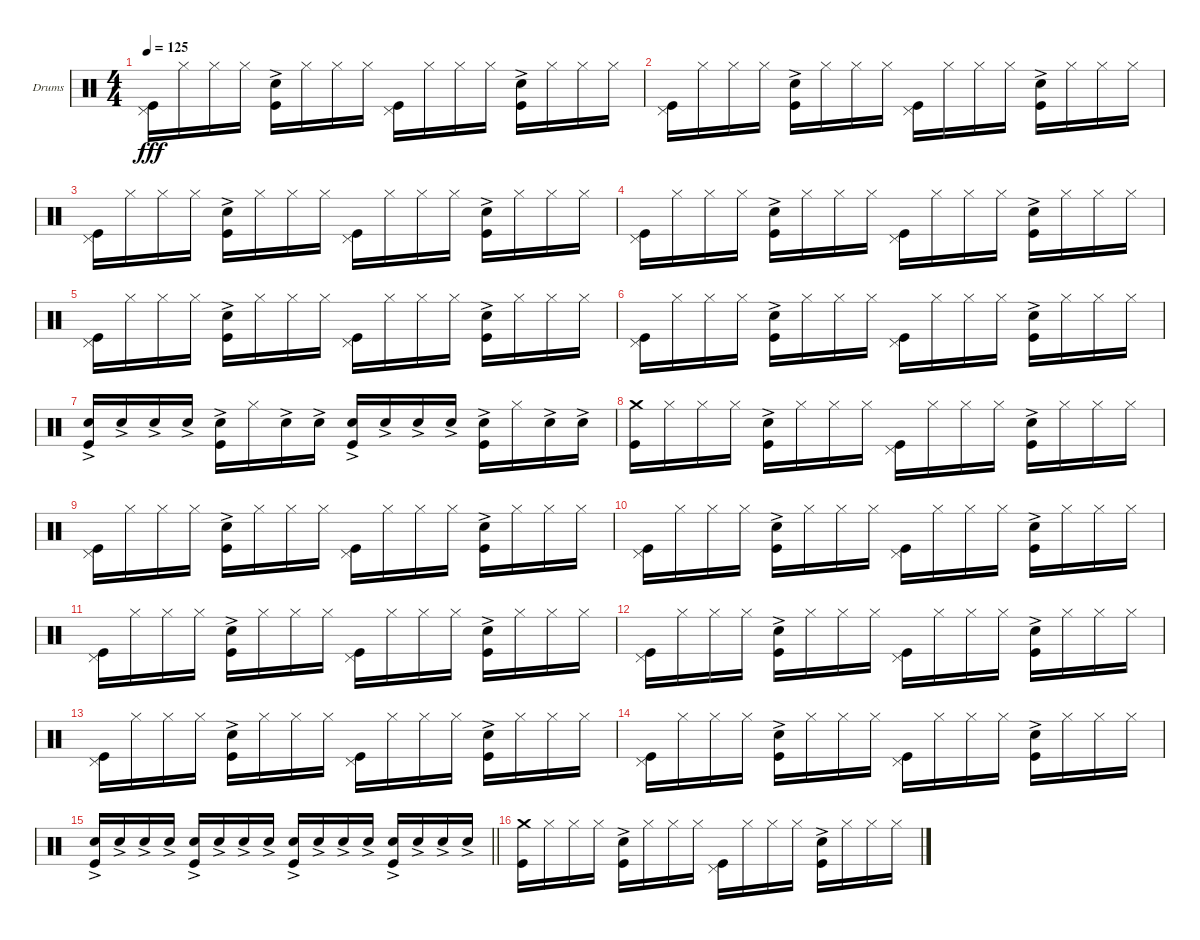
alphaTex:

\bracketExtendMode groupsimilarinstruments
\firstSystemTrackNameOrientation horizontal
\otherSystemsTrackNameOrientation horizontal
\track ("Ударники Григорий Гурьянов" "Drums") {instrument percussion}
\staff {score}
\articulation defaults
\ts (4 4)
\tempo 125
\clef neutral
\ks c
("Pedal Hi-Hat (hit)" "Kick (hit)").16{dy fff} "Hi-Hat (closed)".16 "Hi-Hat (closed)".16 "Hi-Hat (closed)".16 ("Snare (hit) 2"{ac} "Kick (hit)").16 "Hi-Hat (closed)".16 "Hi-Hat (closed)".16 "Hi-Hat (closed)".16 ("Pedal Hi-Hat (hit)" "Kick (hit)").16 "Hi-Hat (closed)".16 "Hi-Hat (closed)".16 "Hi-Hat (closed)".16 ("Snare (hit) 2"{ac} "Kick (hit)").16 "Hi-Hat (closed)".16 "Hi-Hat (closed)".16 "Hi-Hat (closed)".16 |
("Pedal Hi-Hat (hit)" "Kick (hit)").16 "Hi-Hat (closed)".16 "Hi-Hat (closed)".16 "Hi-Hat (closed)".16 ("Snare (hit) 2"{ac} "Kick (hit)").16 "Hi-Hat (closed)".16 "Hi-Hat (closed)".16 "Hi-Hat (closed)".16 ("Pedal Hi-Hat (hit)" "Kick (hit)").16 "Hi-Hat (closed)".16 "Hi-Hat (closed)".16 "Hi-Hat (closed)".16 ("Snare (hit) 2"{ac} "Kick (hit)").16 "Hi-Hat (closed)".16 "Hi-Hat (closed)".16 "Hi-Hat (closed)".16 |
("Pedal Hi-Hat (hit)" "Kick (hit)").16 "Hi-Hat (closed)".16 "Hi-Hat (closed)".16 "Hi-Hat (closed)".16 ("Snare (hit) 2"{ac} "Kick (hit)").16 "Hi-Hat (closed)".16 "Hi-Hat (closed)".16 "Hi-Hat (closed)".16 ("Pedal Hi-Hat (hit)" "Kick (hit)").16 "Hi-Hat (closed)".16 "Hi-Hat (closed)".16 "Hi-Hat (closed)".16 ("Snare (hit) 2"{ac} "Kick (hit)").16 "Hi-Hat (closed)".16 "Hi-Hat (closed)".16 "Hi-Hat (closed)".16 |
("Pedal Hi-Hat (hit)" "Kick (hit)").16 "Hi-Hat (closed)".16 "Hi-Hat (closed)".16 "Hi-Hat (closed)".16 ("Snare (hit) 2"{ac} "Kick (hit)").16 "Hi-Hat (closed)".16 "Hi-Hat (closed)".16 "Hi-Hat (closed)".16 ("Pedal Hi-Hat (hit)" "Kick (hit)").16 "Hi-Hat (closed)".16 "Hi-Hat (closed)".16 "Hi-Hat (closed)".16 ("Snare (hit) 2"{ac} "Kick (hit)").16 "Hi-Hat (closed)".16 "Hi-Hat (closed)".16 "Hi-Hat (closed)".16 |
("Pedal Hi-Hat (hit)" "Kick (hit)").16 "Hi-Hat (closed)".16 "Hi-Hat (closed)".16 "Hi-Hat (closed)".16 ("Snare (hit) 2"{ac} "Kick (hit)").16 "Hi-Hat (closed)".16 "Hi-Hat (closed)".16 "Hi-Hat (closed)".16 ("Pedal Hi-Hat (hit)" "Kick (hit)").16 "Hi-Hat (closed)".16 "Hi-Hat (closed)".16 "Hi-Hat (closed)".16 ("Snare (hit) 2"{ac} "Kick (hit)").16 "Hi-Hat (closed)".16 "Hi-Hat (closed)".16 "Hi-Hat (closed)".16 |
("Pedal Hi-Hat (hit)" "Kick (hit)").16 "Hi-Hat (closed)".16 "Hi-Hat (closed)".16 "Hi-Hat (closed)".16 ("Snare (hit) 2"{ac} "Kick (hit)").16 "Hi-Hat (closed)".16 "Hi-Hat (closed)".16 "Hi-Hat (closed)".16 ("Pedal Hi-Hat (hit)" "Kick (hit)").16 "Hi-Hat (closed)".16 "Hi-Hat (closed)".16 "Hi-Hat (closed)".16 ("Snare (hit) 2"{ac} "Kick (hit)").16 "Hi-Hat (closed)".16 "Hi-Hat (closed)".16 "Hi-Hat (closed)".16 |
("Snare (hit) 2"{ac} "Kick (hit)").16 "Snare (hit) 2"{ac}.16 "Snare (hit) 2"{ac}.16 "Snare (hit) 2"{ac}.16 ("Snare (hit) 2"{ac} "Kick (hit)").16 "Hi-Hat (closed)".16 "Snare (hit) 2"{ac}.16 "Snare (hit) 2"{ac}.16 ("Snare (hit) 2"{ac} "Kick (hit)").16 "Snare (hit) 2"{ac}.16 "Snare (hit) 2"{ac}.16 "Snare (hit) 2"{ac}.16 ("Snare (hit) 2"{ac} "Kick (hit)").16 "Hi-Hat (closed)".16 "Snare (hit) 2"{ac}.16 "Snare (hit) 2"{ac}.16 |
("Crash medium (hit)" "Kick (hit)").16 "Hi-Hat (closed)".16 "Hi-Hat (closed)".16 "Hi-Hat (closed)".16 ("Snare (hit) 2"{ac} "Kick (hit)").16 "Hi-Hat (closed)".16 "Hi-Hat (closed)".16 "Hi-Hat (closed)".16 ("Pedal Hi-Hat (hit)" "Kick (hit)").16 "Hi-Hat (closed)".16 "Hi-Hat (closed)".16 "Hi-Hat (closed)".16 ("Snare (hit) 2"{ac} "Kick (hit)").16 "Hi-Hat (closed)".16 "Hi-Hat (closed)".16 "Hi-Hat (closed)".16 |
("Pedal Hi-Hat (hit)" "Kick (hit)").16 "Hi-Hat (closed)".16 "Hi-Hat (closed)".16 "Hi-Hat (closed)".16 ("Snare (hit) 2"{ac} "Kick (hit)").16 "Hi-Hat (closed)".16 "Hi-Hat (closed)".16 "Hi-Hat (closed)".16 ("Pedal Hi-Hat (hit)" "Kick (hit)").16 "Hi-Hat (closed)".16 "Hi-Hat (closed)".16 "Hi-Hat (closed)".16 ("Snare (hit) 2"{ac} "Kick (hit)").16 "Hi-Hat (closed)".16 "Hi-Hat (closed)".16 "Hi-Hat (closed)".16 |
("Pedal Hi-Hat (hit)" "Kick (hit)").16 "Hi-Hat (closed)".16 "Hi-Hat (closed)".16 "Hi-Hat (closed)".16 ("Snare (hit) 2"{ac} "Kick (hit)").16 "Hi-Hat (closed)".16 "Hi-Hat (closed)".16 "Hi-Hat (closed)".16 ("Pedal Hi-Hat (hit)" "Kick (hit)").16 "Hi-Hat (closed)".16 "Hi-Hat (closed)".16 "Hi-Hat (closed)".16 ("Snare (hit) 2"{ac} "Kick (hit)").16 "Hi-Hat (closed)".16 "Hi-Hat (closed)".16 "Hi-Hat (closed)".16 |
("Pedal Hi-Hat (hit)" "Kick (hit)").16 "Hi-Hat (closed)".16 "Hi-Hat (closed)".16 "Hi-Hat (closed)".16 ("Snare (hit) 2"{ac} "Kick (hit)").16 "Hi-Hat (closed)".16 "Hi-Hat (closed)".16 "Hi-Hat (closed)".16 ("Pedal Hi-Hat (hit)" "Kick (hit)").16 "Hi-Hat (closed)".16 "Hi-Hat (closed)".16 "Hi-Hat (closed)".16 ("Snare (hit) 2"{ac} "Kick (hit)").16 "Hi-Hat (closed)".16 "Hi-Hat (closed)".16 "Hi-Hat (closed)".16 |
("Pedal Hi-Hat (hit)" "Kick (hit)").16 "Hi-Hat (closed)".16 "Hi-Hat (closed)".16 "Hi-Hat (closed)".16 ("Snare (hit) 2"{ac} "Kick (hit)").16 "Hi-Hat (closed)".16 "Hi-Hat (closed)".16 "Hi-Hat (closed)".16 ("Pedal Hi-Hat (hit)" "Kick (hit)").16 "Hi-Hat (closed)".16 "Hi-Hat (closed)".16 "Hi-Hat (closed)".16 ("Snare (hit) 2"{ac} "Kick (hit)").16 "Hi-Hat (closed)".16 "Hi-Hat (closed)".16 "Hi-Hat (closed)".16 |
("Pedal Hi-Hat (hit)" "Kick (hit)").16 "Hi-Hat (closed)".16 "Hi-Hat (closed)".16 "Hi-Hat (closed)".16 ("Snare (hit) 2"{ac} "Kick (hit)").16 "Hi-Hat (closed)".16 "Hi-Hat (closed)".16 "Hi-Hat (closed)".16 ("Pedal Hi-Hat (hit)" "Kick (hit)").16 "Hi-Hat (closed)".16 "Hi-Hat (closed)".16 "Hi-Hat (closed)".16 ("Snare (hit) 2"{ac} "Kick (hit)").16 "Hi-Hat (closed)".16 "Hi-Hat (closed)".16 "Hi-Hat (closed)".16 |
("Pedal Hi-Hat (hit)" "Kick (hit)").16 "Hi-Hat (closed)".16 "Hi-Hat (closed)".16 "Hi-Hat (closed)".16 ("Snare (hit) 2"{ac} "Kick (hit)").16 "Hi-Hat (closed)".16 "Hi-Hat (closed)".16 "Hi-Hat (closed)".16 ("Pedal Hi-Hat (hit)" "Kick (hit)").16 "Hi-Hat (closed)".16 "Hi-Hat (closed)".16 "Hi-Hat (closed)".16 ("Snare (hit) 2"{ac} "Kick (hit)").16 "Hi-Hat (closed)".16 "Hi-Hat (closed)".16 "Hi-Hat (closed)".16 |
\barLineRight lightlight
("Snare (hit) 2"{ac} "Kick (hit)").16 "Snare (hit) 2"{ac}.16 "Snare (hit) 2"{ac}.16 "Snare (hit) 2"{ac}.16 ("Snare (hit) 2"{ac} "Kick (hit)").16 "Snare (hit) 2"{ac}.16 "Snare (hit) 2"{ac}.16 "Snare (hit) 2"{ac}.16 ("Snare (hit) 2"{ac} "Kick (hit)").16 "Snare (hit) 2"{ac}.16 "Snare (hit) 2"{ac}.16 "Snare (hit) 2"{ac}.16 ("Snare (hit) 2"{ac} "Kick (hit)").16 "Snare (hit) 2"{ac}.16 "Snare (hit) 2"{ac}.16 "Snare (hit) 2"{ac}.16 |
("Crash medium (hit)" "Kick (hit)").16 "Hi-Hat (closed)".16 "Hi-Hat (closed)".16 "Hi-Hat (closed)".16 ("Snare (hit) 2"{ac} "Kick (hit)").16 "Hi-Hat (closed)".16 "Hi-Hat (closed)".16 "Hi-Hat (closed)".16 ("Pedal Hi-Hat (hit)" "Kick (hit)").16 "Hi-Hat (closed)".16 "Hi-Hat (closed)".16 "Hi-Hat (closed)".16 ("Snare (hit) 2"{ac} "Kick (hit)").16 "Hi-Hat (closed)".16 "Hi-Hat (closed)".16 "Hi-Hat (closed)".16
